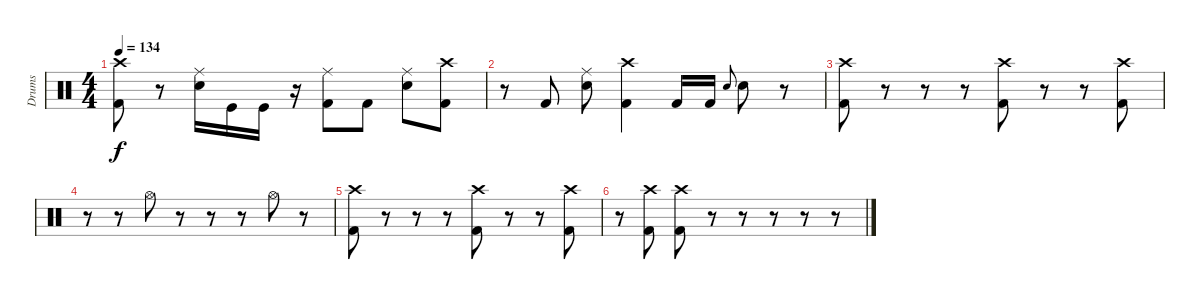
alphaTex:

\track ("Drums" "Drums") {instrument percussion}
\staff {score}
\articulation defaults
\ts (4 4)
\tempo 134
\clef neutral
\ks c
("Crash high (hit)" "Kick (hit) 2").8{dy f} r.8 ("Ride (middle)" "Snare (hit) 2").16 "Kick (hit)".16 "Kick (hit)".16 r.16 ("Ride (middle)" "Kick (hit) 2").8 "Kick (hit) 2".8 ("Ride (middle)" "Snare (hit) 2").8 ("Crash high (hit)" "Kick (hit) 2").8 |
r.8 "Kick (hit) 2".8 ("Ride (middle)" "Snare (hit) 2").8 ("Crash high (hit)" "Kick (hit) 2").4 "Kick (hit) 2".16 "Kick (hit) 2".16 "Snare (hit) 2".8{gr onbeat} "Snare (hit) 2".8 r.8 |
("Crash high (hit)" "Kick (hit) 2").8 r.8 r.8 r.8 ("Crash high (hit)" "Kick (hit) 2").8 r.8 r.8 ("Crash high (hit)" "Kick (hit) 2").8 |
r.8 r.8 "Hi-Hat (open)".8 r.8 r.8 r.8 "Hi-Hat (open)".8 r.8 |
("Crash high (hit)" "Kick (hit) 2").8 r.8 r.8 r.8 ("Crash high (hit)" "Kick (hit) 2").8 r.8 r.8 ("Crash high (hit)" "Kick (hit) 2").8 |
r.8 ("Crash high (hit)" "Kick (hit) 2").8 ("Crash high (hit)" "Kick (hit) 2").8 r.8 r.8 r.8 r.8 r.8
